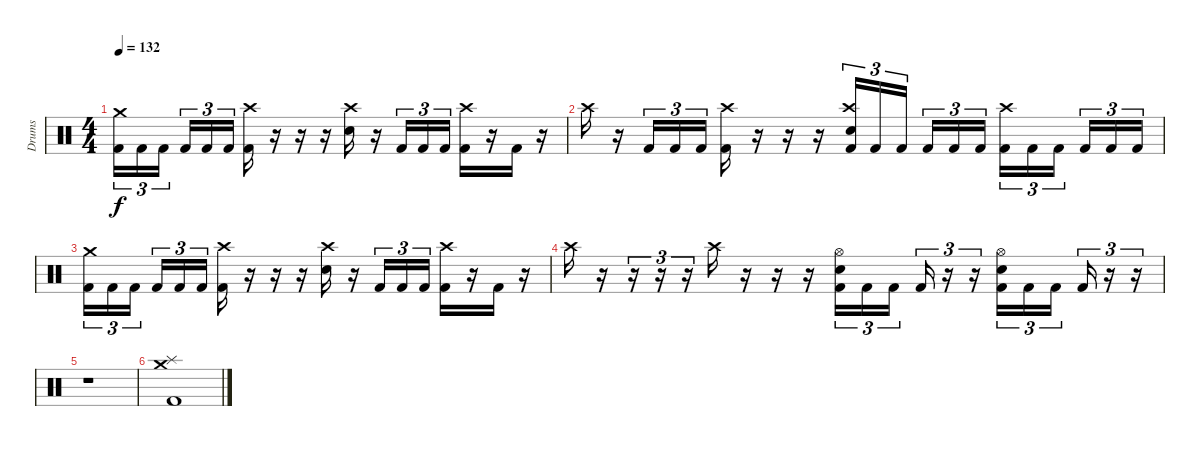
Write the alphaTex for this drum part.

\track ("Drums" "Drums") {instrument percussion}
\staff {score}
\articulation defaults
\ts (4 4)
\tempo 132
\clef neutral
\ks c
("Crash medium (hit)" "Kick (hit) 2").16{tu (3 2) dy f} "Kick (hit) 2".16{tu (3 2)} "Kick (hit) 2".16{tu (3 2)} "Kick (hit) 2".16{tu (3 2)} "Kick (hit) 2".16{tu (3 2)} "Kick (hit) 2".16{tu (3 2)} ("Crash high (hit)" "Kick (hit) 2").16 r.16 r.16 r.16 ("Crash high (hit)" "Electric Snare (hit)").16 r.16 "Kick (hit) 2".16{tu (3 2)} "Kick (hit) 2".16{tu (3 2)} "Kick (hit) 2".16{tu (3 2)} ("Crash high (hit)" "Kick (hit) 2").16 r.16 "Kick (hit) 2".16 r.16 |
"Crash high (hit)".16 r.16 "Kick (hit) 2".16{tu (3 2)} "Kick (hit) 2".16{tu (3 2)} "Kick (hit) 2".16{tu (3 2)} ("Crash high (hit)" "Kick (hit) 2").16 r.16 r.16 r.16 ("Crash high (hit)" "Electric Snare (hit)" "Kick (hit) 2").16{tu (3 2)} "Kick (hit) 2".16{tu (3 2)} "Kick (hit) 2".16{tu (3 2)} "Kick (hit) 2".16{tu (3 2)} "Kick (hit) 2".16{tu (3 2)} "Kick (hit) 2".16{tu (3 2)} ("Crash high (hit)" "Kick (hit) 2").16{tu (3 2)} "Kick (hit) 2".16{tu (3 2)} "Kick (hit) 2".16{tu (3 2)} "Kick (hit) 2".16{tu (3 2)} "Kick (hit) 2".16{tu (3 2)} "Kick (hit) 2".16{tu (3 2)} |
("Crash medium (hit)" "Kick (hit) 2").16{tu (3 2)} "Kick (hit) 2".16{tu (3 2)} "Kick (hit) 2".16{tu (3 2)} "Kick (hit) 2".16{tu (3 2)} "Kick (hit) 2".16{tu (3 2)} "Kick (hit) 2".16{tu (3 2)} ("Crash high (hit)" "Kick (hit) 2").16 r.16 r.16 r.16 ("Crash high (hit)" "Electric Snare (hit)").16 r.16 "Kick (hit) 2".16{tu (3 2)} "Kick (hit) 2".16{tu (3 2)} "Kick (hit) 2".16{tu (3 2)} ("Crash high (hit)" "Kick (hit) 2").16 r.16 "Kick (hit) 2".16 r.16 |
"Crash high (hit)".16 r.16 r.16{tu (3 2)} r.16{tu (3 2)} r.16{tu (3 2)} "Crash high (hit)".16 r.16 r.16 r.16 ("Hi-Hat (open)" "Electric Snare (hit)" "Kick (hit) 2").16{tu (3 2)} "Kick (hit) 2".16{tu (3 2)} "Kick (hit) 2".16{tu (3 2)} "Kick (hit) 2".16{tu (3 2)} r.16{tu (3 2)} r.16{tu (3 2)} ("Hi-Hat (open)" "Electric Snare (hit)" "Kick (hit) 2").16{tu (3 2)} "Kick (hit) 2".16{tu (3 2)} "Kick (hit) 2".16{tu (3 2)} "Kick (hit) 2".16{tu (3 2)} r.16{tu (3 2)} r.16{tu (3 2)} |
r.1 |
("Crash medium (hit)" "Splash (hit)" "Kick (hit) 2").1
